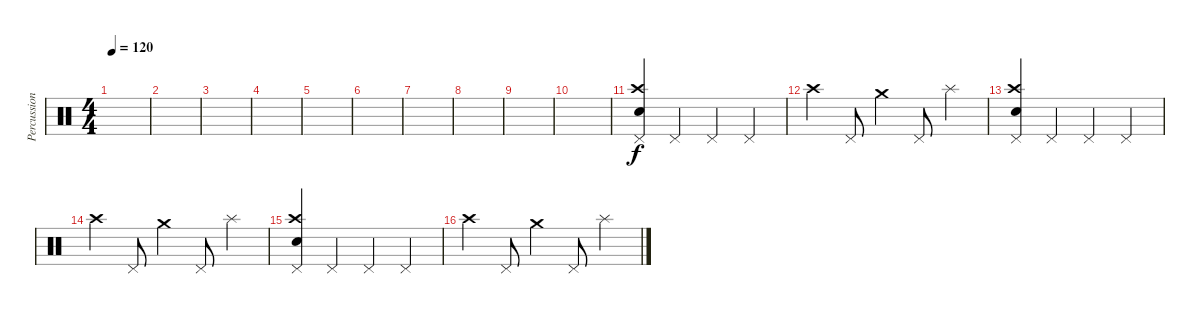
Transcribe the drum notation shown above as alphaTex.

\track ("Percussion" "Percussion") {instrument percussion}
\staff {score}
\articulation defaults
\ts (4 4)
\tempo 120
\clef neutral
\ks c
|
|
|
|
|
|
|
|
|
|
("Pedal Hi-Hat (hit)" "Crash high (hit)" "Snare (hit) 2").4 "Pedal Hi-Hat (hit)".4 "Pedal Hi-Hat (hit)".4 "Pedal Hi-Hat (hit)".4 |
"Crash high (hit)".4 "Pedal Hi-Hat (hit)".8 "Crash medium (hit)".4 "Pedal Hi-Hat (hit)".8 "Splash (hit)".4 |
("Pedal Hi-Hat (hit)" "Crash high (hit)" "Snare (hit) 2").4 "Pedal Hi-Hat (hit)".4 "Pedal Hi-Hat (hit)".4 "Pedal Hi-Hat (hit)".4 |
"Crash high (hit)".4 "Pedal Hi-Hat (hit)".8 "Crash medium (hit)".4 "Pedal Hi-Hat (hit)".8 "Splash (hit)".4 |
("Pedal Hi-Hat (hit)" "Crash high (hit)" "Snare (hit) 2").4 "Pedal Hi-Hat (hit)".4 "Pedal Hi-Hat (hit)".4 "Pedal Hi-Hat (hit)".4 |
"Crash high (hit)".4 "Pedal Hi-Hat (hit)".8 "Crash medium (hit)".4 "Pedal Hi-Hat (hit)".8 "Splash (hit)".4
